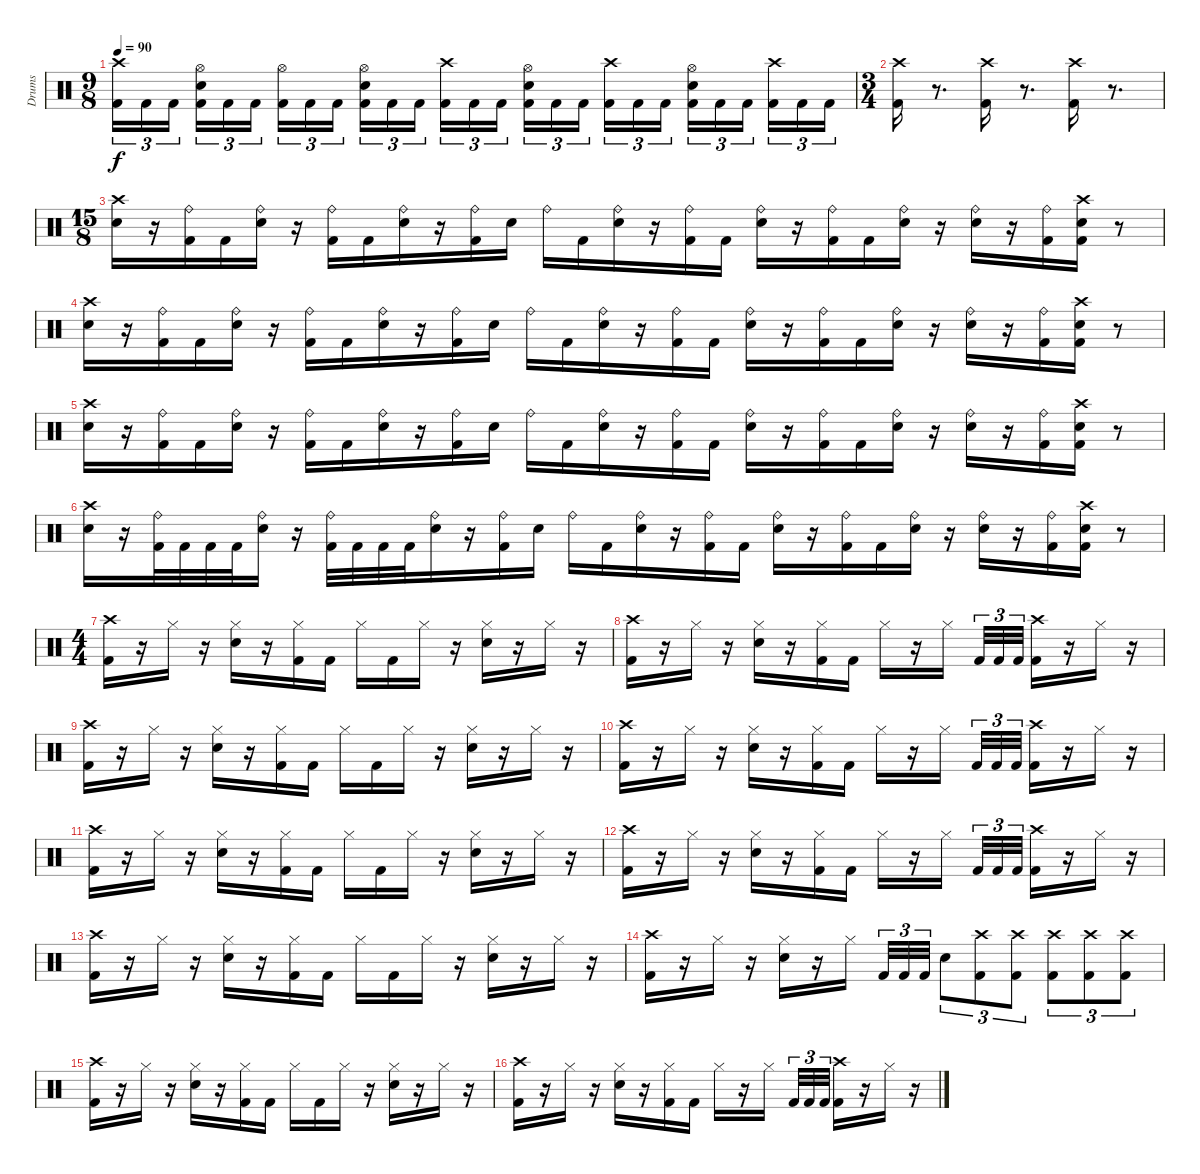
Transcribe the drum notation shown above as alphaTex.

\track ("Drums" "Drums") {instrument percussion}
\staff {score}
\articulation defaults
\ts (9 8)
\tempo 90
\clef neutral
\ks c
("Crash high (hit)" "Kick (hit) 2").16{tu (3 2) dy f} "Kick (hit) 2".16{tu (3 2)} "Kick (hit) 2".16{tu (3 2) beam splitsecondary} ("Electric Snare (hit)" "Kick (hit) 2" "Hi-Hat (open)").16{tu (3 2)} "Kick (hit) 2".16{tu (3 2)} "Kick (hit) 2".16{tu (3 2) beam splitsecondary} ("Kick (hit) 2" "Hi-Hat (open)").16{tu (3 2)} "Kick (hit) 2".16{tu (3 2)} "Kick (hit) 2".16{tu (3 2)} ("Electric Snare (hit)" "Kick (hit) 2" "Hi-Hat (open)").16{tu (3 2)} "Kick (hit) 2".16{tu (3 2)} "Kick (hit) 2".16{tu (3 2) beam splitsecondary} ("Crash high (hit)" "Kick (hit) 2").16{tu (3 2)} "Kick (hit) 2".16{tu (3 2)} "Kick (hit) 2".16{tu (3 2) beam splitsecondary} ("Electric Snare (hit)" "Kick (hit) 2" "Hi-Hat (open)").16{tu (3 2)} "Kick (hit) 2".16{tu (3 2)} "Kick (hit) 2".16{tu (3 2)} ("Crash high (hit)" "Kick (hit) 2").16{tu (3 2)} "Kick (hit) 2".16{tu (3 2)} "Kick (hit) 2".16{tu (3 2) beam splitsecondary} ("Electric Snare (hit)" "Kick (hit) 2" "Hi-Hat (open)").16{tu (3 2)} "Kick (hit) 2".16{tu (3 2)} "Kick (hit) 2".16{tu (3 2) beam splitsecondary} ("Crash high (hit)" "Kick (hit) 2").16{tu (3 2)} "Kick (hit) 2".16{tu (3 2)} "Kick (hit) 2".16{tu (3 2)} |
\ts (3 4)
("Crash high (hit)" "Kick (hit) 2").16 r.8{d} ("Crash high (hit)" "Kick (hit) 2").16 r.8{d} ("Crash high (hit)" "Kick (hit) 2").16 r.8{d} |
\ts (15 8)
("Crash high (hit)" "Electric Snare (hit)").16 r.16 ("Ride (bell)" "Kick (hit) 2").16 "Kick (hit) 2".16 ("Ride (bell)" "Electric Snare (hit)").16 r.16 ("Ride (bell)" "Kick (hit) 2").16 "Kick (hit) 2".16 ("Ride (bell)" "Electric Snare (hit)").16 r.16 ("Ride (bell)" "Kick (hit) 2").16 "Electric Snare (hit)".16 "Ride (bell)".16 "Kick (hit) 2".16 ("Ride (bell)" "Electric Snare (hit)").16 r.16 ("Ride (bell)" "Kick (hit) 2").16 "Kick (hit) 2".16 ("Ride (bell)" "Electric Snare (hit)").16 r.16 ("Ride (bell)" "Kick (hit) 2").16 "Kick (hit) 2".16 ("Ride (bell)" "Electric Snare (hit)").16 r.16 ("Ride (bell)" "Electric Snare (hit)").16 r.16 ("Ride (bell)" "Kick (hit) 2").16 ("Kick (hit) 2" "Crash high (hit)" "Electric Snare (hit)").16 r.8 |
("Electric Snare (hit)" "Crash high (hit)").16 r.16 ("Kick (hit) 2" "Ride (bell)").16 "Kick (hit) 2".16 ("Electric Snare (hit)" "Ride (bell)").16 r.16 ("Kick (hit) 2" "Ride (bell)").16 "Kick (hit) 2".16 ("Electric Snare (hit)" "Ride (bell)").16 r.16 ("Kick (hit) 2" "Ride (bell)").16 "Electric Snare (hit)".16 "Ride (bell)".16 "Kick (hit) 2".16 ("Electric Snare (hit)" "Ride (bell)").16 r.16 ("Kick (hit) 2" "Ride (bell)").16 "Kick (hit) 2".16 ("Electric Snare (hit)" "Ride (bell)").16 r.16 ("Kick (hit) 2" "Ride (bell)").16 "Kick (hit) 2".16 ("Electric Snare (hit)" "Ride (bell)").16 r.16 ("Electric Snare (hit)" "Ride (bell)").16 r.16 ("Ride (bell)" "Kick (hit) 2").16 ("Electric Snare (hit)" "Crash high (hit)" "Kick (hit) 2").16 r.8 |
("Electric Snare (hit)" "Crash high (hit)").16 r.16 ("Kick (hit) 2" "Ride (bell)").16 "Kick (hit) 2".16 ("Electric Snare (hit)" "Ride (bell)").16 r.16 ("Kick (hit) 2" "Ride (bell)").16 "Kick (hit) 2".16 ("Electric Snare (hit)" "Ride (bell)").16 r.16 ("Kick (hit) 2" "Ride (bell)").16 "Electric Snare (hit)".16 "Ride (bell)".16 "Kick (hit) 2".16 ("Electric Snare (hit)" "Ride (bell)").16 r.16 ("Kick (hit) 2" "Ride (bell)").16 "Kick (hit) 2".16 ("Electric Snare (hit)" "Ride (bell)").16 r.16 ("Kick (hit) 2" "Ride (bell)").16 "Kick (hit) 2".16 ("Electric Snare (hit)" "Ride (bell)").16 r.16 ("Electric Snare (hit)" "Ride (bell)").16 r.16 ("Ride (bell)" "Kick (hit) 2").16 ("Electric Snare (hit)" "Crash high (hit)" "Kick (hit) 2").16 r.8 |
("Crash high (hit)" "Electric Snare (hit)").16 r.16 ("Kick (hit) 2" "Ride (bell)").32 "Kick (hit) 2".32 "Kick (hit) 2".32 "Kick (hit) 2".32 ("Ride (bell)" "Electric Snare (hit)").16 r.16 ("Kick (hit) 2" "Ride (bell)").32 "Kick (hit) 2".32 "Kick (hit) 2".32 "Kick (hit) 2".32 ("Ride (bell)" "Electric Snare (hit)").16 r.16 ("Ride (bell)" "Kick (hit) 2").16 "Electric Snare (hit)".16 "Ride (bell)".16 "Kick (hit) 2".16 ("Ride (bell)" "Electric Snare (hit)").16 r.16 ("Ride (bell)" "Kick (hit) 2").16 "Kick (hit) 2".16 ("Ride (bell)" "Electric Snare (hit)").16 r.16 ("Ride (bell)" "Kick (hit) 2").16 "Kick (hit) 2".16 ("Ride (bell)" "Electric Snare (hit)").16 r.16 ("Ride (bell)" "Electric Snare (hit)").16 r.16 ("Ride (bell)" "Kick (hit) 2").16 ("Kick (hit) 2" "Crash high (hit)" "Electric Snare (hit)").16 r.8 |
\ts (4 4)
("Crash high (hit)" "Kick (hit) 2").16 r.16 "Hi-Hat (closed)".16 r.16 ("Hi-Hat (closed)" "Electric Snare (hit)").16 r.16 ("Hi-Hat (closed)" "Kick (hit) 2").16 "Kick (hit) 2".16 "Hi-Hat (closed)".16 "Kick (hit) 2".16 "Hi-Hat (closed)".16 r.16 ("Hi-Hat (closed)" "Electric Snare (hit)").16 r.16 "Hi-Hat (closed)".16 r.16 |
("Kick (hit) 2" "Crash high (hit)").16 r.16 "Hi-Hat (closed)".16 r.16 ("Hi-Hat (closed)" "Electric Snare (hit)").16 r.16 ("Hi-Hat (closed)" "Kick (hit) 2").16 "Kick (hit) 2".16 "Hi-Hat (closed)".16 r.16 "Hi-Hat (closed)".16{beam splitsecondary} "Kick (hit) 2".32{tu (3 2)} "Kick (hit) 2".32{tu (3 2)} "Kick (hit) 2".32{tu (3 2)} ("Crash high (hit)" "Kick (hit) 2").16 r.16 "Hi-Hat (closed)".16 r.16 |
("Kick (hit) 2" "Crash high (hit)").16 r.16 "Hi-Hat (closed)".16 r.16 ("Electric Snare (hit)" "Hi-Hat (closed)").16 r.16 ("Kick (hit) 2" "Hi-Hat (closed)").16 "Kick (hit) 2".16 "Hi-Hat (closed)".16 "Kick (hit) 2".16 "Hi-Hat (closed)".16 r.16 ("Electric Snare (hit)" "Hi-Hat (closed)").16 r.16 "Hi-Hat (closed)".16 r.16 |
("Crash high (hit)" "Kick (hit) 2").16 r.16 "Hi-Hat (closed)".16 r.16 ("Electric Snare (hit)" "Hi-Hat (closed)").16 r.16 ("Kick (hit) 2" "Hi-Hat (closed)").16 "Kick (hit) 2".16 "Hi-Hat (closed)".16 r.16 "Hi-Hat (closed)".16{beam splitsecondary} "Kick (hit) 2".32{tu (3 2)} "Kick (hit) 2".32{tu (3 2)} "Kick (hit) 2".32{tu (3 2)} ("Kick (hit) 2" "Crash high (hit)").16 r.16 "Hi-Hat (closed)".16 r.16 |
("Kick (hit) 2" "Crash high (hit)").16 r.16 "Hi-Hat (closed)".16 r.16 ("Electric Snare (hit)" "Hi-Hat (closed)").16 r.16 ("Kick (hit) 2" "Hi-Hat (closed)").16 "Kick (hit) 2".16 "Hi-Hat (closed)".16 "Kick (hit) 2".16 "Hi-Hat (closed)".16 r.16 ("Electric Snare (hit)" "Hi-Hat (closed)").16 r.16 "Hi-Hat (closed)".16 r.16 |
("Crash high (hit)" "Kick (hit) 2").16 r.16 "Hi-Hat (closed)".16 r.16 ("Electric Snare (hit)" "Hi-Hat (closed)").16 r.16 ("Kick (hit) 2" "Hi-Hat (closed)").16 "Kick (hit) 2".16 "Hi-Hat (closed)".16 r.16 "Hi-Hat (closed)".16{beam splitsecondary} "Kick (hit) 2".32{tu (3 2)} "Kick (hit) 2".32{tu (3 2)} "Kick (hit) 2".32{tu (3 2)} ("Kick (hit) 2" "Crash high (hit)").16 r.16 "Hi-Hat (closed)".16 r.16 |
("Crash high (hit)" "Kick (hit) 2").16 r.16 "Hi-Hat (closed)".16 r.16 ("Hi-Hat (closed)" "Electric Snare (hit)").16 r.16 ("Hi-Hat (closed)" "Kick (hit) 2").16 "Kick (hit) 2".16 "Hi-Hat (closed)".16 "Kick (hit) 2".16 "Hi-Hat (closed)".16 r.16 ("Hi-Hat (closed)" "Electric Snare (hit)").16 r.16 "Hi-Hat (closed)".16 r.16 |
("Crash high (hit)" "Kick (hit) 2").16 r.16 "Hi-Hat (closed)".16 r.16 ("Hi-Hat (closed)" "Electric Snare (hit)").16 r.16 "Hi-Hat (closed)".16{beam splitsecondary} "Kick (hit) 2".32{tu (3 2)} "Kick (hit) 2".32{tu (3 2)} "Kick (hit) 2".32{tu (3 2)} "Electric Snare (hit)".8{tu (3 2)} ("Crash high (hit)" "Kick (hit) 2").8{tu (3 2)} ("Crash high (hit)" "Kick (hit) 2").8{tu (3 2)} ("Crash high (hit)" "Kick (hit) 2").8{tu (3 2)} ("Crash high (hit)" "Kick (hit) 2").8{tu (3 2)} ("Crash high (hit)" "Kick (hit) 2").8{tu (3 2)} |
("Crash high (hit)" "Kick (hit) 2").16 r.16 "Hi-Hat (closed)".16 r.16 ("Hi-Hat (closed)" "Electric Snare (hit)").16 r.16 ("Hi-Hat (closed)" "Kick (hit) 2").16 "Kick (hit) 2".16 "Hi-Hat (closed)".16 "Kick (hit) 2".16 "Hi-Hat (closed)".16 r.16 ("Hi-Hat (closed)" "Electric Snare (hit)").16 r.16 "Hi-Hat (closed)".16 r.16 |
("Kick (hit) 2" "Crash high (hit)").16 r.16 "Hi-Hat (closed)".16 r.16 ("Hi-Hat (closed)" "Electric Snare (hit)").16 r.16 ("Hi-Hat (closed)" "Kick (hit) 2").16 "Kick (hit) 2".16 "Hi-Hat (closed)".16 r.16 "Hi-Hat (closed)".16{beam splitsecondary} "Kick (hit) 2".32{tu (3 2)} "Kick (hit) 2".32{tu (3 2)} "Kick (hit) 2".32{tu (3 2)} ("Crash high (hit)" "Kick (hit) 2").16 r.16 "Hi-Hat (closed)".16 r.16
